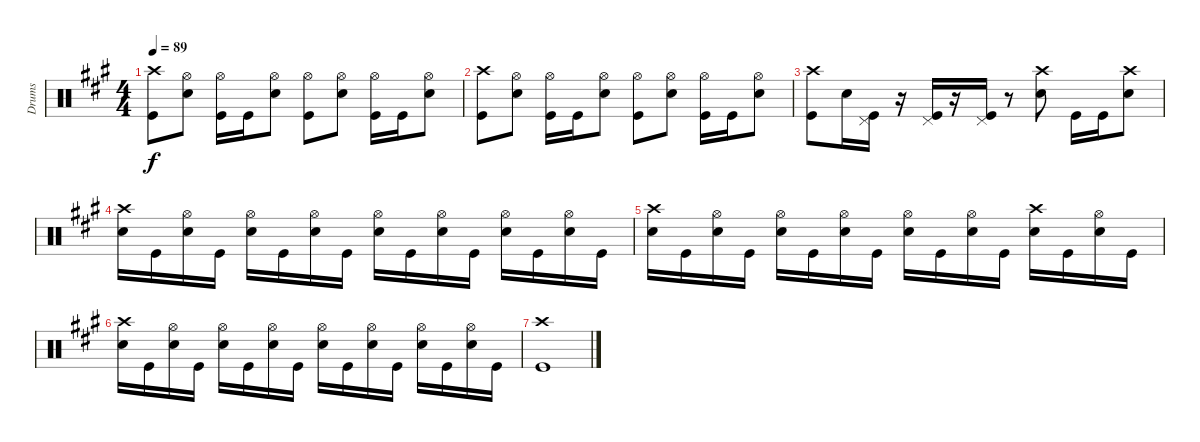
\track ("Drums" "Drums") {instrument percussion}
\staff {score}
\articulation defaults
\ts (4 4)
\tempo 89
\clef neutral
\ks f#minor
("Crash high (hit)" "Kick (hit)").8{dy f} ("Hi-Hat (open)" "Snare (hit) 2").8 ("Hi-Hat (open)" "Kick (hit)").16 "Kick (hit)".16 ("Hi-Hat (open)" "Snare (hit) 2").8 ("Hi-Hat (open)" "Kick (hit)").8 ("Hi-Hat (open)" "Snare (hit) 2").8 ("Hi-Hat (open)" "Kick (hit)").16 "Kick (hit)".16 ("Hi-Hat (open)" "Snare (hit) 2").8 |
("Crash high (hit)" "Kick (hit)").8 ("Hi-Hat (open)" "Snare (hit) 2").8 ("Hi-Hat (open)" "Kick (hit)").16 "Kick (hit)".16 ("Hi-Hat (open)" "Snare (hit) 2").8 ("Hi-Hat (open)" "Kick (hit)").8 ("Hi-Hat (open)" "Snare (hit) 2").8 ("Hi-Hat (open)" "Kick (hit)").16 "Kick (hit)".16 ("Hi-Hat (open)" "Snare (hit) 2").8 |
("Crash high (hit)" "Kick (hit)").8 "Snare (hit) 2".16 ("Pedal Hi-Hat (hit)" "Kick (hit)").16 r.16 ("Pedal Hi-Hat (hit)" "Kick (hit)").16 r.16 ("Pedal Hi-Hat (hit)" "Kick (hit)").16 r.8 ("Crash high (hit)" "Snare (hit) 2").8 "Kick (hit)".16 "Kick (hit)".16 ("Crash high (hit)" "Snare (hit) 2").8 |
("Crash high (hit)" "Snare (hit) 2").16 "Kick (hit)".16 ("Hi-Hat (open)" "Snare (hit) 2").16 "Kick (hit)".16 ("Hi-Hat (open)" "Snare (hit) 2").16 "Kick (hit)".16 ("Hi-Hat (open)" "Snare (hit) 2").16 "Kick (hit)".16 ("Hi-Hat (open)" "Snare (hit) 2").16 "Kick (hit)".16 ("Hi-Hat (open)" "Snare (hit) 2").16 "Kick (hit)".16 ("Hi-Hat (open)" "Snare (hit) 2").16 "Kick (hit)".16 ("Hi-Hat (open)" "Snare (hit) 2").16 "Kick (hit)".16 |
("Crash high (hit)" "Snare (hit) 2").16 "Kick (hit)".16 ("Hi-Hat (open)" "Snare (hit) 2").16 "Kick (hit)".16 ("Hi-Hat (open)" "Snare (hit) 2").16 "Kick (hit)".16 ("Hi-Hat (open)" "Snare (hit) 2").16 "Kick (hit)".16 ("Hi-Hat (open)" "Snare (hit) 2").16 "Kick (hit)".16 ("Hi-Hat (open)" "Snare (hit) 2").16 "Kick (hit)".16 ("Crash high (hit)" "Snare (hit) 2").16 "Kick (hit)".16 ("Hi-Hat (open)" "Snare (hit) 2").16 "Kick (hit)".16 |
("Crash high (hit)" "Snare (hit) 2").16 "Kick (hit)".16 ("Hi-Hat (open)" "Snare (hit) 2").16 "Kick (hit)".16 ("Hi-Hat (open)" "Snare (hit) 2").16 "Kick (hit)".16 ("Hi-Hat (open)" "Snare (hit) 2").16 "Kick (hit)".16 ("Hi-Hat (open)" "Snare (hit) 2").16 "Kick (hit)".16 ("Hi-Hat (open)" "Snare (hit) 2").16 "Kick (hit)".16 ("Hi-Hat (open)" "Snare (hit) 2").16 "Kick (hit)".16 ("Hi-Hat (open)" "Snare (hit) 2").16 "Kick (hit)".16 |
("Crash high (hit)" "Kick (hit)").1
